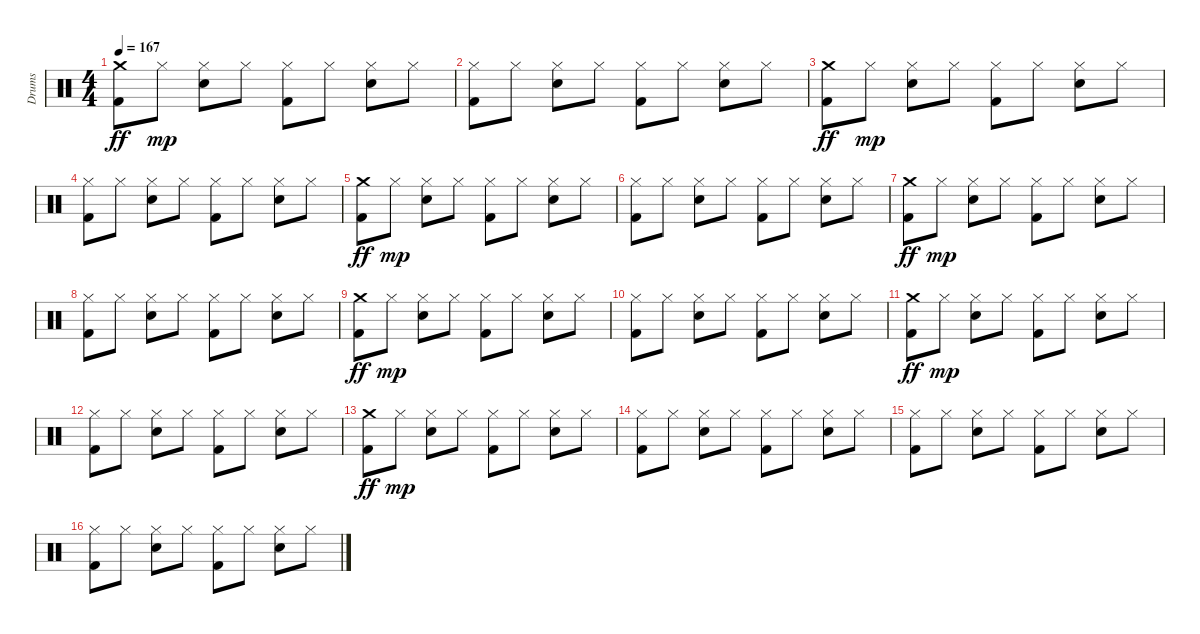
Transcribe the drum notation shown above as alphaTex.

\track ("Drums" "Drums") {instrument percussion}
\staff {score}
\articulation defaults
\ts (4 4)
\tempo 167
\clef neutral
\ks c
("Crash medium (hit)" "Kick (hit) 2").8{dy ff} "Hi-Hat (closed)".8{dy mp} ("Hi-Hat (closed)" "Snare (hit) 2").8 "Hi-Hat (closed)".8 ("Hi-Hat (closed)" "Kick (hit) 2").8 "Hi-Hat (closed)".8 ("Hi-Hat (closed)" "Snare (hit) 2").8 "Hi-Hat (closed)".8 |
("Hi-Hat (closed)" "Kick (hit) 2").8 "Hi-Hat (closed)".8 ("Hi-Hat (closed)" "Snare (hit) 2").8 "Hi-Hat (closed)".8 ("Hi-Hat (closed)" "Kick (hit) 2").8 "Hi-Hat (closed)".8 ("Hi-Hat (closed)" "Snare (hit) 2").8 "Hi-Hat (closed)".8 |
("Crash medium (hit)" "Kick (hit) 2").8{dy ff} "Hi-Hat (closed)".8{dy mp} ("Hi-Hat (closed)" "Snare (hit) 2").8 "Hi-Hat (closed)".8 ("Hi-Hat (closed)" "Kick (hit) 2").8 "Hi-Hat (closed)".8 ("Hi-Hat (closed)" "Snare (hit) 2").8 "Hi-Hat (closed)".8 |
("Hi-Hat (closed)" "Kick (hit) 2").8 "Hi-Hat (closed)".8 ("Hi-Hat (closed)" "Snare (hit) 2").8 "Hi-Hat (closed)".8 ("Hi-Hat (closed)" "Kick (hit) 2").8 "Hi-Hat (closed)".8 ("Hi-Hat (closed)" "Snare (hit) 2").8 "Hi-Hat (closed)".8 |
("Crash medium (hit)" "Kick (hit) 2").8{dy ff} "Hi-Hat (closed)".8{dy mp} ("Hi-Hat (closed)" "Snare (hit) 2").8 "Hi-Hat (closed)".8 ("Hi-Hat (closed)" "Kick (hit) 2").8 "Hi-Hat (closed)".8 ("Hi-Hat (closed)" "Snare (hit) 2").8 "Hi-Hat (closed)".8 |
("Hi-Hat (closed)" "Kick (hit) 2").8 "Hi-Hat (closed)".8 ("Hi-Hat (closed)" "Snare (hit) 2").8 "Hi-Hat (closed)".8 ("Hi-Hat (closed)" "Kick (hit) 2").8 "Hi-Hat (closed)".8 ("Hi-Hat (closed)" "Snare (hit) 2").8 "Hi-Hat (closed)".8 |
("Crash medium (hit)" "Kick (hit) 2").8{dy ff} "Hi-Hat (closed)".8{dy mp} ("Hi-Hat (closed)" "Snare (hit) 2").8 "Hi-Hat (closed)".8 ("Hi-Hat (closed)" "Kick (hit) 2").8 "Hi-Hat (closed)".8 ("Hi-Hat (closed)" "Snare (hit) 2").8 "Hi-Hat (closed)".8 |
("Hi-Hat (closed)" "Kick (hit) 2").8 "Hi-Hat (closed)".8 ("Hi-Hat (closed)" "Snare (hit) 2").8 "Hi-Hat (closed)".8 ("Hi-Hat (closed)" "Kick (hit) 2").8 "Hi-Hat (closed)".8 ("Hi-Hat (closed)" "Snare (hit) 2").8 "Hi-Hat (closed)".8 |
("Crash medium (hit)" "Kick (hit) 2").8{dy ff} "Hi-Hat (closed)".8{dy mp} ("Hi-Hat (closed)" "Snare (hit) 2").8 "Hi-Hat (closed)".8 ("Hi-Hat (closed)" "Kick (hit) 2").8 "Hi-Hat (closed)".8 ("Hi-Hat (closed)" "Snare (hit) 2").8 "Hi-Hat (closed)".8 |
("Hi-Hat (closed)" "Kick (hit) 2").8 "Hi-Hat (closed)".8 ("Hi-Hat (closed)" "Snare (hit) 2").8 "Hi-Hat (closed)".8 ("Hi-Hat (closed)" "Kick (hit) 2").8 "Hi-Hat (closed)".8 ("Hi-Hat (closed)" "Snare (hit) 2").8 "Hi-Hat (closed)".8 |
("Crash medium (hit)" "Kick (hit) 2").8{dy ff} "Hi-Hat (closed)".8{dy mp} ("Hi-Hat (closed)" "Snare (hit) 2").8 "Hi-Hat (closed)".8 ("Hi-Hat (closed)" "Kick (hit) 2").8 "Hi-Hat (closed)".8 ("Hi-Hat (closed)" "Snare (hit) 2").8 "Hi-Hat (closed)".8 |
("Hi-Hat (closed)" "Kick (hit) 2").8 "Hi-Hat (closed)".8 ("Hi-Hat (closed)" "Snare (hit) 2").8 "Hi-Hat (closed)".8 ("Hi-Hat (closed)" "Kick (hit) 2").8 "Hi-Hat (closed)".8 ("Hi-Hat (closed)" "Snare (hit) 2").8 "Hi-Hat (closed)".8 |
("Crash medium (hit)" "Kick (hit) 2").8{dy ff} "Hi-Hat (closed)".8{dy mp} ("Hi-Hat (closed)" "Snare (hit) 2").8 "Hi-Hat (closed)".8 ("Hi-Hat (closed)" "Kick (hit) 2").8 "Hi-Hat (closed)".8 ("Hi-Hat (closed)" "Snare (hit) 2").8 "Hi-Hat (closed)".8 |
("Hi-Hat (closed)" "Kick (hit) 2").8 "Hi-Hat (closed)".8 ("Hi-Hat (closed)" "Snare (hit) 2").8 "Hi-Hat (closed)".8 ("Hi-Hat (closed)" "Kick (hit) 2").8 "Hi-Hat (closed)".8 ("Hi-Hat (closed)" "Snare (hit) 2").8 "Hi-Hat (closed)".8 |
("Hi-Hat (closed)" "Kick (hit) 2").8 "Hi-Hat (closed)".8 ("Hi-Hat (closed)" "Snare (hit) 2").8 "Hi-Hat (closed)".8 ("Hi-Hat (closed)" "Kick (hit) 2").8 "Hi-Hat (closed)".8 ("Hi-Hat (closed)" "Snare (hit) 2").8 "Hi-Hat (closed)".8 |
("Hi-Hat (closed)" "Kick (hit) 2").8 "Hi-Hat (closed)".8 ("Hi-Hat (closed)" "Snare (hit) 2").8 "Hi-Hat (closed)".8 ("Hi-Hat (closed)" "Kick (hit) 2").8 "Hi-Hat (closed)".8 ("Hi-Hat (closed)" "Snare (hit) 2").8 "Hi-Hat (closed)".8
